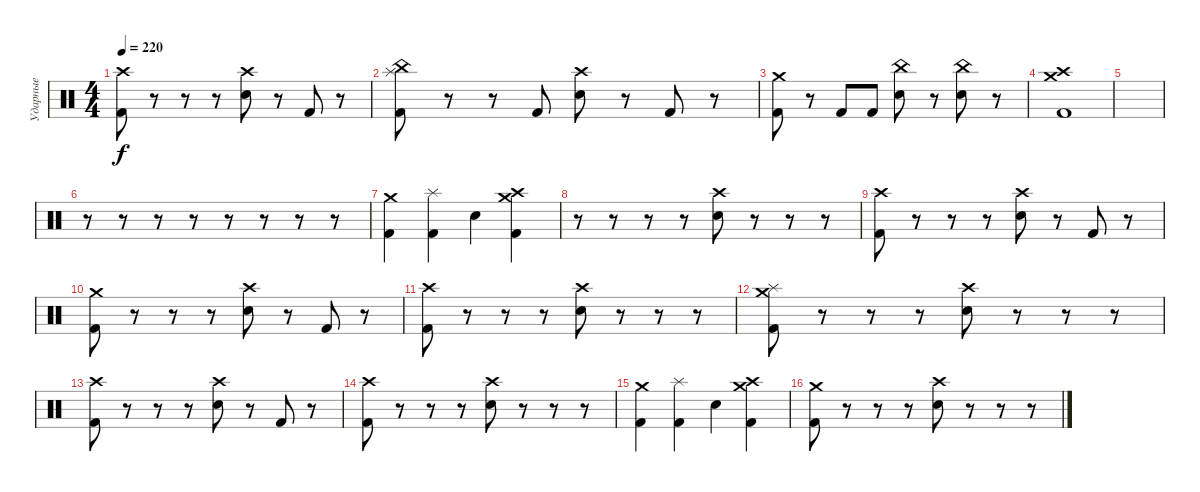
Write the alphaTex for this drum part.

\track ("Ударные" "Ударные") {instrument percussion}
\staff {score}
\articulation defaults
\ts (4 4)
\tempo 220
\clef neutral
\ks c
("Kick (hit) 2" "Crash high (hit)").8{dy f} r.8 r.8 r.8 ("Electric Snare (hit)" "Crash high (hit)").8 r.8 "Kick (hit) 2".8 r.8 |
("Kick (hit) 2" "China (hit)" "Splash (hit)").8 r.8 r.8 "Kick (hit) 2".8 ("Electric Snare (hit)" "Crash high (hit)").8 r.8 "Kick (hit) 2".8 r.8 |
("Kick (hit) 2" "Crash medium (hit)").8 r.8 "Kick (hit) 2".8 "Kick (hit) 2".8 ("Electric Snare (hit)" "China (hit)").8 r.8 ("Electric Snare (hit)" "China (hit)").8 r.8 |
("Kick (hit) 2" "Crash high (hit)" "Crash medium (hit)").1 |
|
r.8 r.8 r.8 r.8 r.8 r.8 r.8 r.8 |
("Kick (hit) 2" "Crash medium (hit)").4 ("Kick (hit) 2" "Splash (hit)").4 "Electric Snare (hit)".4 ("Kick (hit) 2" "Crash medium (hit)" "Crash high (hit)").4 |
r.8 r.8 r.8 r.8 ("Electric Snare (hit)" "Crash high (hit)").8 r.8 r.8 r.8 |
("Kick (hit) 2" "Crash high (hit)").8 r.8 r.8 r.8 ("Electric Snare (hit)" "Crash high (hit)").8 r.8 "Kick (hit) 2".8 r.8 |
("Kick (hit) 2" "Crash medium (hit)").8 r.8 r.8 r.8 ("Electric Snare (hit)" "Crash high (hit)").8 r.8 "Kick (hit) 2".8 r.8 |
("Kick (hit) 2" "Crash high (hit)").8 r.8 r.8 r.8 ("Electric Snare (hit)" "Crash high (hit)").8 r.8 r.8 r.8 |
("Kick (hit) 2" "Splash (hit)" "Crash medium (hit)").8 r.8 r.8 r.8 ("Electric Snare (hit)" "Crash high (hit)").8 r.8 r.8 r.8 |
("Kick (hit) 2" "Crash high (hit)").8 r.8 r.8 r.8 ("Electric Snare (hit)" "Crash high (hit)").8 r.8 "Kick (hit) 2".8 r.8 |
("Kick (hit) 2" "Crash high (hit)").8 r.8 r.8 r.8 ("Electric Snare (hit)" "Crash high (hit)").8 r.8 r.8 r.8 |
("Kick (hit) 2" "Crash medium (hit)").4 ("Kick (hit) 2" "Splash (hit)").4 "Electric Snare (hit)".4 ("Kick (hit) 2" "Crash medium (hit)" "Crash high (hit)").4 |
("Kick (hit) 2" "Crash medium (hit)").8 r.8 r.8 r.8 ("Electric Snare (hit)" "Crash high (hit)").8 r.8 r.8 r.8
